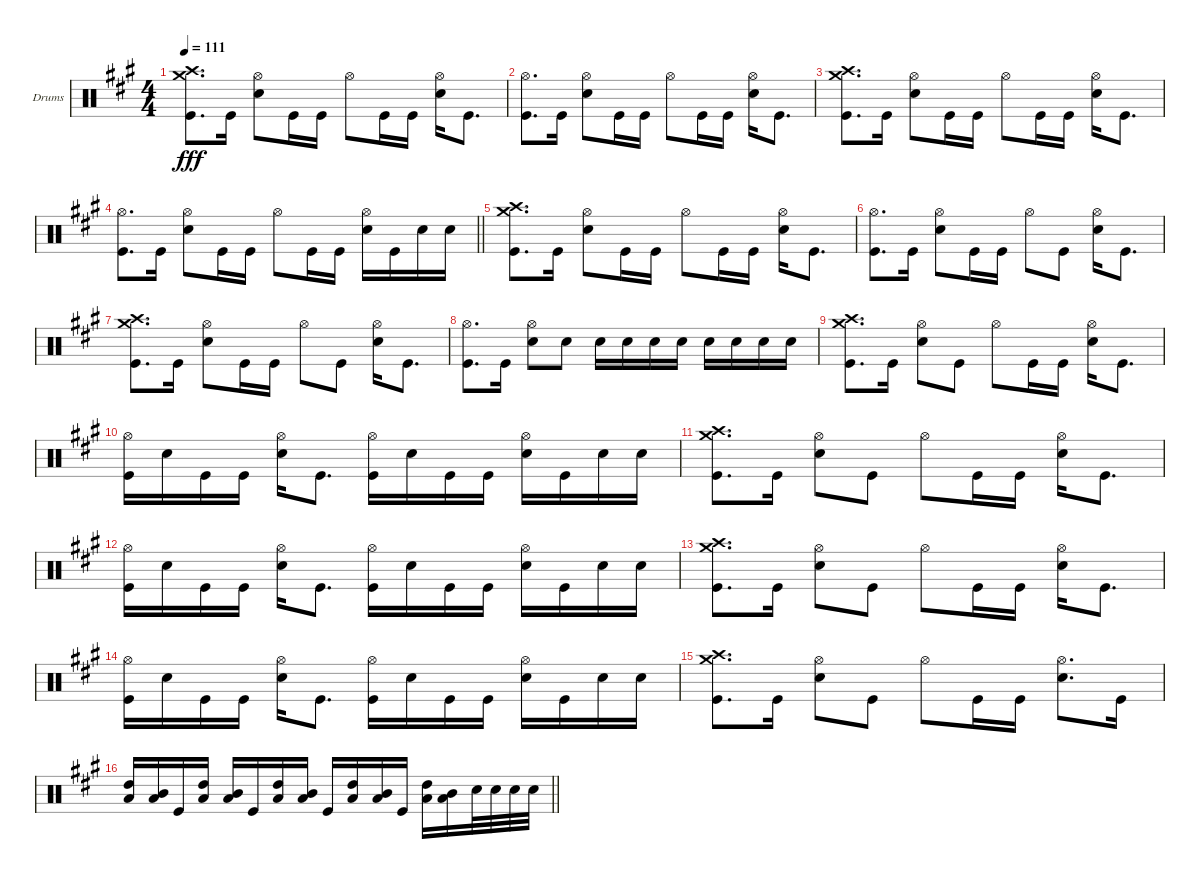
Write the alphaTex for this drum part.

\bracketExtendMode groupsimilarinstruments
\firstSystemTrackNameOrientation horizontal
\otherSystemsTrackNameOrientation horizontal
\track ("Drumkit" "Drums") {instrument percussion}
\staff {score}
\articulation defaults
\ts (4 4)
\tempo 111
\clef neutral
\scale
0.339161
\ks a
("Crash high (hit)" "Crash medium (hit)" "Kick (hit)").8{d dy fff} "Kick (hit)".16 ("Hi-Hat (open)" "Snare (hit) 2").8 "Kick (hit)".16 "Kick (hit)".16 "Hi-Hat (open)".8 "Kick (hit)".16 "Kick (hit)".16 ("Hi-Hat (open)" "Snare (hit) 2").16 "Kick (hit)".8{d} |
\scale
0.323333 ("Hi-Hat (open)" "Kick (hit)").8{d} "Kick (hit)".16 ("Hi-Hat (open)" "Snare (hit) 2").8 "Kick (hit)".16 "Kick (hit)".16 "Hi-Hat (open)".8 "Kick (hit)".16 "Kick (hit)".16 ("Hi-Hat (open)" "Snare (hit) 2").16 "Kick (hit)".8{d} |
\scale
0.323333 ("Crash medium (hit)" "Crash high (hit)" "Kick (hit)").8{d} "Kick (hit)".16 ("Hi-Hat (open)" "Snare (hit) 2").8 "Kick (hit)".16 "Kick (hit)".16 "Hi-Hat (open)".8 "Kick (hit)".16 "Kick (hit)".16 ("Hi-Hat (open)" "Snare (hit) 2").16 "Kick (hit)".8{d} |
\scale
0.353333
\barLineRight lightlight
("Hi-Hat (open)" "Kick (hit)").8{d} "Kick (hit)".16 ("Hi-Hat (open)" "Snare (hit) 2").8 "Kick (hit)".16 "Kick (hit)".16 "Hi-Hat (open)".8 "Kick (hit)".16 "Kick (hit)".16 ("Hi-Hat (open)" "Snare (hit) 2").16 "Kick (hit)".16 "Snare (hit) 2".16 "Snare (hit) 2".16 |
\scale
0.343972 ("Crash high (hit)" "Crash medium (hit)" "Kick (hit)").8{d} "Kick (hit)".16 ("Hi-Hat (open)" "Snare (hit) 2").8 "Kick (hit)".16 "Kick (hit)".16 "Hi-Hat (open)".8 "Kick (hit)".16 "Kick (hit)".16 ("Hi-Hat (open)" "Snare (hit) 2").16 "Kick (hit)".8{d} |
\scale
0.328014 ("Hi-Hat (open)" "Kick (hit)").8{d} "Kick (hit)".16 ("Hi-Hat (open)" "Snare (hit) 2").8 "Kick (hit)".16 "Kick (hit)".16 "Hi-Hat (open)".8 "Kick (hit)".8 ("Hi-Hat (open)" "Snare (hit) 2").16 "Kick (hit)".8{d} |
\scale
0.328014 ("Crash high (hit)" "Crash medium (hit)" "Kick (hit)").8{d} "Kick (hit)".16 ("Hi-Hat (open)" "Snare (hit) 2").8 "Kick (hit)".16 "Kick (hit)".16 "Hi-Hat (open)".8 "Kick (hit)".8 ("Hi-Hat (open)" "Snare (hit) 2").16 "Kick (hit)".8{d} |
\scale
0.338118 ("Hi-Hat (open)" "Kick (hit)").8{d} "Kick (hit)".16 ("Hi-Hat (open)" "Snare (hit) 2").8 "Snare (hit) 2".8 "Snare (hit) 2".16 "Snare (hit) 2".16 "Snare (hit) 2".16 "Snare (hit) 2".16 "Snare (hit) 2".16 "Snare (hit) 2".16 "Snare (hit) 2".16 "Snare (hit) 2".16 |
\scale
0.295056 ("Crash high (hit)" "Crash medium (hit)" "Kick (hit)").8{d} "Kick (hit)".16 ("Hi-Hat (open)" "Snare (hit) 2").8 "Kick (hit)".8 "Hi-Hat (open)".8 "Kick (hit)".16 "Kick (hit)".16 ("Hi-Hat (open)" "Snare (hit) 2").16 "Kick (hit)".8{d} |
\scale
0.366826 ("Hi-Hat (open)" "Kick (hit)").16 "Snare (hit) 2".16 "Kick (hit)".16 "Kick (hit)".16 ("Hi-Hat (open)" "Snare (hit) 2").16 "Kick (hit)".8{d} ("Hi-Hat (open)" "Kick (hit)").16 "Snare (hit) 2".16 "Kick (hit)".16 "Kick (hit)".16 ("Hi-Hat (open)" "Snare (hit) 2").16 "Kick (hit)".16 "Snare (hit) 2".16 "Snare (hit) 2".16 |
\scale
0.308333 ("Crash high (hit)" "Crash medium (hit)" "Kick (hit)").8{d} "Kick (hit)".16 ("Hi-Hat (open)" "Snare (hit) 2").8 "Kick (hit)".8 "Hi-Hat (open)".8 "Kick (hit)".16 "Kick (hit)".16 ("Hi-Hat (open)" "Snare (hit) 2").16 "Kick (hit)".8{d} |
\scale
0.383333 ("Hi-Hat (open)" "Kick (hit)").16 "Snare (hit) 2".16 "Kick (hit)".16 "Kick (hit)".16 ("Hi-Hat (open)" "Snare (hit) 2").16 "Kick (hit)".8{d} ("Hi-Hat (open)" "Kick (hit)").16 "Snare (hit) 2".16 "Kick (hit)".16 "Kick (hit)".16 ("Hi-Hat (open)" "Snare (hit) 2").16 "Kick (hit)".16 "Snare (hit) 2".16 "Snare (hit) 2".16 |
\scale
0.308333 ("Crash high (hit)" "Crash medium (hit)" "Kick (hit)").8{d} "Kick (hit)".16 ("Hi-Hat (open)" "Snare (hit) 2").8 "Kick (hit)".8 "Hi-Hat (open)".8 "Kick (hit)".16 "Kick (hit)".16 ("Hi-Hat (open)" "Snare (hit) 2").16 "Kick (hit)".8{d} |
\scale
0.324401 ("Hi-Hat (open)" "Kick (hit)").16 "Snare (hit) 2".16 "Kick (hit)".16 "Kick (hit)".16 ("Hi-Hat (open)" "Snare (hit) 2").16 "Kick (hit)".8{d} ("Hi-Hat (open)" "Kick (hit)").16 "Snare (hit) 2".16 "Kick (hit)".16 "Kick (hit)".16 ("Hi-Hat (open)" "Snare (hit) 2").16 "Kick (hit)".16 "Snare (hit) 2".16 "Snare (hit) 2".16 |
\scale
0.260931 ("Crash high (hit)" "Crash medium (hit)" "Kick (hit)").8{d} "Kick (hit)".16 ("Hi-Hat (open)" "Snare (hit) 2").8 "Kick (hit)".8 "Hi-Hat (open)".8 "Kick (hit)".16 "Kick (hit)".16 ("Hi-Hat (open)" "Snare (hit) 2").8{d} "Kick (hit)".16 |
\scale
0.414669
\barLineRight lightlight
("Low Tom (hit)" "High Tom (hit)").16 ("Low Tom (hit)" "Mid Tom (hit)").16 "Kick (hit)".16 ("Low Tom (hit)" "High Tom (hit)").16 ("Low Tom (hit)" "Mid Tom (hit)").16 "Kick (hit)".16 ("Low Tom (hit)" "High Tom (hit)").16 ("Low Tom (hit)" "Mid Tom (hit)").16 "Kick (hit)".16 ("Low Tom (hit)" "High Tom (hit)").16 ("Low Tom (hit)" "Mid Tom (hit)").16 "Kick (hit)".16 ("Low Tom (hit)" "High Tom (hit)").16 ("Low Tom (hit)" "Mid Tom (hit)").16 "Snare (hit) 2".32 "Snare (hit) 2".32 "Snare (hit) 2".32 "Snare (hit) 2".32
